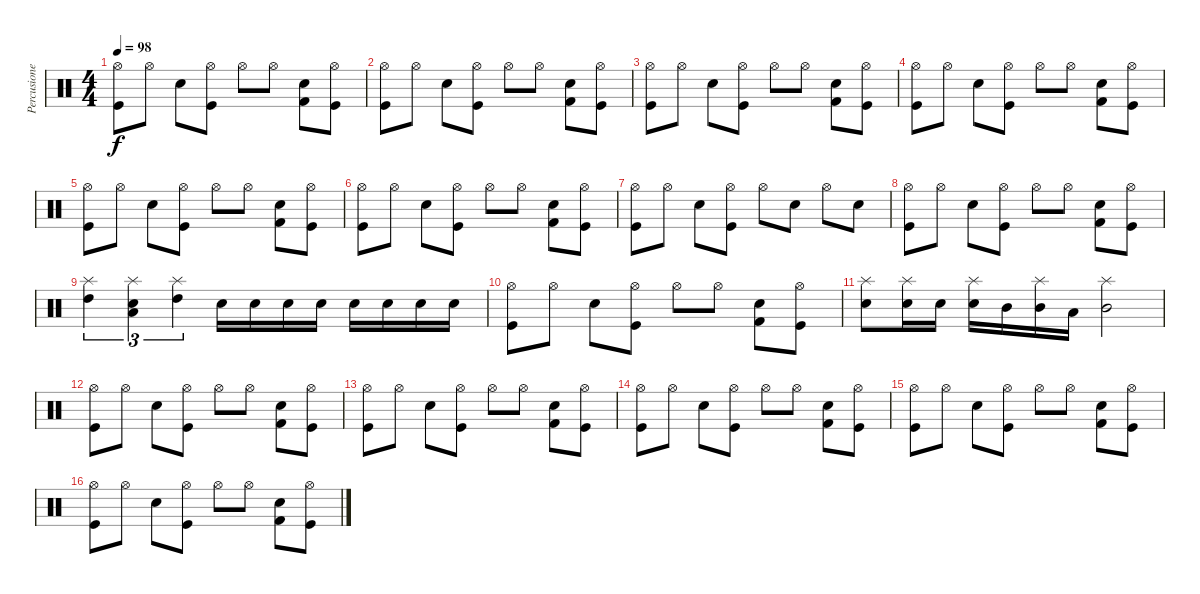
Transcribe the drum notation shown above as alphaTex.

\track ("Percusiones" "Percusione") {instrument percussion}
\staff {score}
\articulation defaults
\ts (4 4)
\tempo 98
\clef neutral
\ks c
("Hi-Hat (open)" "Kick (hit)").8{dy f} "Hi-Hat (open)".8 "Electric Snare (hit)".8 ("Hi-Hat (open)" "Kick (hit)").8 "Hi-Hat (open)".8 "Hi-Hat (open)".8 ("Electric Snare (hit)" "Kick (hit) 2").8 ("Hi-Hat (open)" "Kick (hit)").8 |
("Hi-Hat (open)" "Kick (hit)").8 "Hi-Hat (open)".8 "Electric Snare (hit)".8 ("Hi-Hat (open)" "Kick (hit)").8 "Hi-Hat (open)".8 "Hi-Hat (open)".8 ("Electric Snare (hit)" "Kick (hit) 2").8 ("Hi-Hat (open)" "Kick (hit)").8 |
("Hi-Hat (open)" "Kick (hit)").8 "Hi-Hat (open)".8 "Electric Snare (hit)".8 ("Hi-Hat (open)" "Kick (hit)").8 "Hi-Hat (open)".8 "Hi-Hat (open)".8 ("Electric Snare (hit)" "Kick (hit) 2").8 ("Hi-Hat (open)" "Kick (hit)").8 |
("Hi-Hat (open)" "Kick (hit)").8 "Hi-Hat (open)".8 "Electric Snare (hit)".8 ("Hi-Hat (open)" "Kick (hit)").8 "Hi-Hat (open)".8 "Hi-Hat (open)".8 ("Electric Snare (hit)" "Kick (hit) 2").8 ("Hi-Hat (open)" "Kick (hit)").8 |
("Hi-Hat (open)" "Kick (hit)").8 "Hi-Hat (open)".8 "Electric Snare (hit)".8 ("Hi-Hat (open)" "Kick (hit)").8 "Hi-Hat (open)".8 "Hi-Hat (open)".8 ("Electric Snare (hit)" "Kick (hit) 2").8 ("Hi-Hat (open)" "Kick (hit)").8 |
("Hi-Hat (open)" "Kick (hit)").8 "Hi-Hat (open)".8 "Electric Snare (hit)".8 ("Hi-Hat (open)" "Kick (hit)").8 "Hi-Hat (open)".8 "Hi-Hat (open)".8 ("Electric Snare (hit)" "Kick (hit) 2").8 ("Hi-Hat (open)" "Kick (hit)").8 |
("Hi-Hat (open)" "Kick (hit)").8 "Hi-Hat (open)".8 "Electric Snare (hit)".8 ("Hi-Hat (open)" "Kick (hit)").8 "Hi-Hat (open)".8 "Electric Snare (hit)".8 "Hi-Hat (open)".8 "Electric Snare (hit)".8 |
("Hi-Hat (open)" "Kick (hit)").8 "Hi-Hat (open)".8 "Electric Snare (hit)".8 ("Hi-Hat (open)" "Kick (hit)").8 "Hi-Hat (open)".8 "Hi-Hat (open)".8 ("Electric Snare (hit)" "Kick (hit) 2").8 ("Hi-Hat (open)" "Kick (hit)").8 |
("Splash (hit)" "High Tom (hit)").4{tu (3 2)} ("Splash (hit)" "Electric Snare (hit)" "Low Tom (hit)").4{tu (3 2)} ("Splash (hit)" "High Tom (hit)").4{tu (3 2)} "Electric Snare (hit)".16 "Electric Snare (hit)".16 "Electric Snare (hit)".16 "Electric Snare (hit)".16 "Electric Snare (hit)".16 "Electric Snare (hit)".16 "Electric Snare (hit)".16 "Electric Snare (hit)".16 |
("Hi-Hat (open)" "Kick (hit)").8 "Hi-Hat (open)".8 "Electric Snare (hit)".8 ("Hi-Hat (open)" "Kick (hit)").8 "Hi-Hat (open)".8 "Hi-Hat (open)".8 ("Electric Snare (hit)" "Kick (hit) 2").8 ("Hi-Hat (open)" "Kick (hit)").8 |
("Electric Snare (hit)" "Splash (hit)").8 ("Electric Snare (hit)" "Splash (hit)").16 "Electric Snare (hit)".16 ("Electric Snare (hit)" "Splash (hit)").16 "Mid Tom (hit)".16 ("Mid Tom (hit)" "Splash (hit)").16 "Low Tom (hit)".16 ("Mid Tom (hit)" "Splash (hit)").2 |
("Hi-Hat (open)" "Kick (hit)").8 "Hi-Hat (open)".8 "Electric Snare (hit)".8 ("Hi-Hat (open)" "Kick (hit)").8 "Hi-Hat (open)".8 "Hi-Hat (open)".8 ("Electric Snare (hit)" "Kick (hit) 2").8 ("Hi-Hat (open)" "Kick (hit)").8 |
("Hi-Hat (open)" "Kick (hit)").8 "Hi-Hat (open)".8 "Electric Snare (hit)".8 ("Hi-Hat (open)" "Kick (hit)").8 "Hi-Hat (open)".8 "Hi-Hat (open)".8 ("Electric Snare (hit)" "Kick (hit) 2").8 ("Hi-Hat (open)" "Kick (hit)").8 |
("Hi-Hat (open)" "Kick (hit)").8 "Hi-Hat (open)".8 "Electric Snare (hit)".8 ("Hi-Hat (open)" "Kick (hit)").8 "Hi-Hat (open)".8 "Hi-Hat (open)".8 ("Electric Snare (hit)" "Kick (hit) 2").8 ("Hi-Hat (open)" "Kick (hit)").8 |
("Hi-Hat (open)" "Kick (hit)").8 "Hi-Hat (open)".8 "Electric Snare (hit)".8 ("Hi-Hat (open)" "Kick (hit)").8 "Hi-Hat (open)".8 "Hi-Hat (open)".8 ("Electric Snare (hit)" "Kick (hit) 2").8 ("Hi-Hat (open)" "Kick (hit)").8 |
("Hi-Hat (open)" "Kick (hit)").8 "Hi-Hat (open)".8 "Electric Snare (hit)".8 ("Hi-Hat (open)" "Kick (hit)").8 "Hi-Hat (open)".8 "Hi-Hat (open)".8 ("Electric Snare (hit)" "Kick (hit) 2").8 ("Hi-Hat (open)" "Kick (hit)").8
